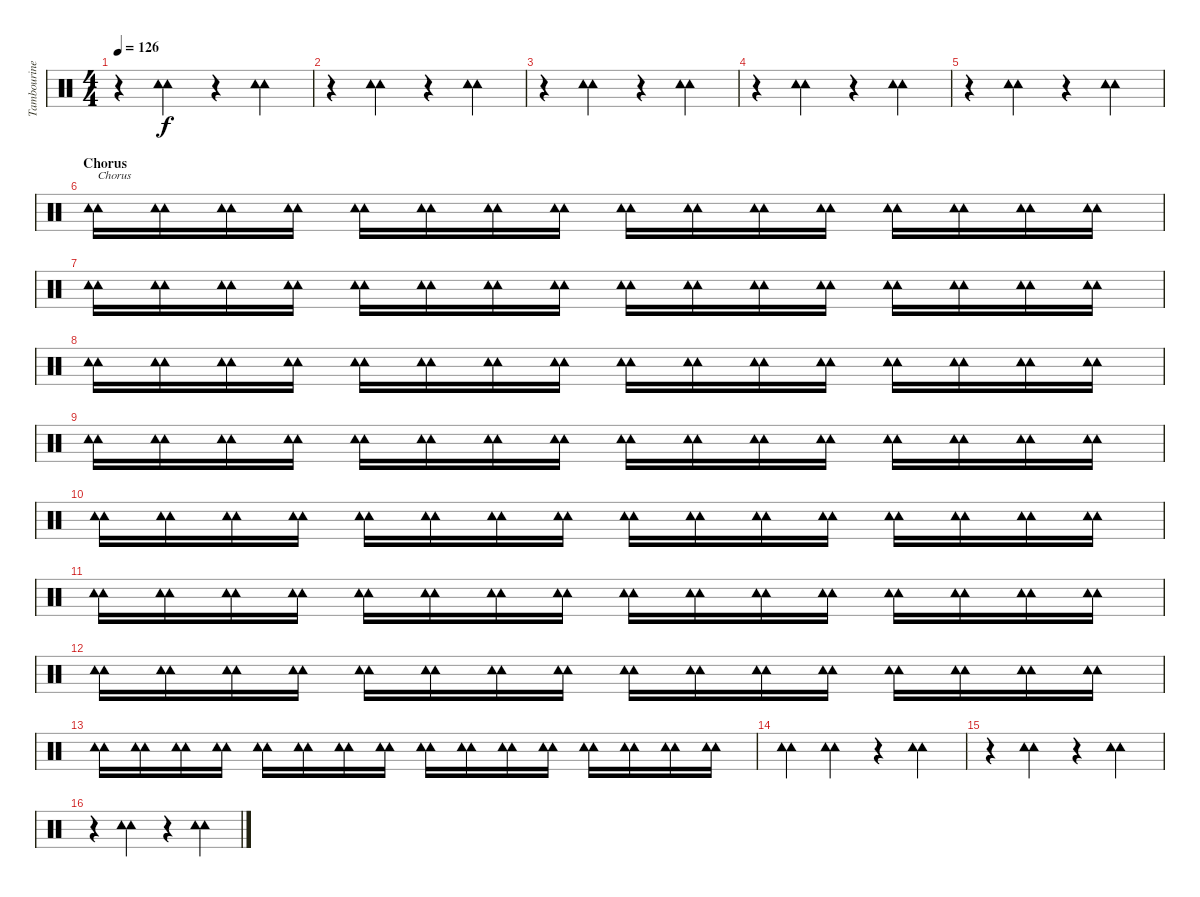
\track ("Tambourine" "Tambourine") {instrument percussion}
\staff {score}
\articulation defaults
\ts (4 4)
\tempo 126
\clef neutral
\ks c
r.4{dy f} ("Tambourine (hit)" "Tambourine (hit)").4 r.4 ("Tambourine (hit)" "Tambourine (hit)").4 |
r.4 ("Tambourine (hit)" "Tambourine (hit)").4 r.4 ("Tambourine (hit)" "Tambourine (hit)").4 |
r.4 ("Tambourine (hit)" "Tambourine (hit)").4 r.4 ("Tambourine (hit)" "Tambourine (hit)").4 |
r.4 ("Tambourine (hit)" "Tambourine (hit)").4 r.4 ("Tambourine (hit)" "Tambourine (hit)").4 |
r.4 ("Tambourine (hit)" "Tambourine (hit)").4 r.4 ("Tambourine (hit)" "Tambourine (hit)").4 |
\section ("" "Chorus")
("Tambourine (hit)" "Tambourine (hit)").16{txt "Chorus"} ("Tambourine (hit)" "Tambourine (hit)").16 ("Tambourine (hit)" "Tambourine (hit)").16 ("Tambourine (hit)" "Tambourine (hit)").16 ("Tambourine (hit)" "Tambourine (hit)").16 ("Tambourine (hit)" "Tambourine (hit)").16 ("Tambourine (hit)" "Tambourine (hit)").16 ("Tambourine (hit)" "Tambourine (hit)").16 ("Tambourine (hit)" "Tambourine (hit)").16 ("Tambourine (hit)" "Tambourine (hit)").16 ("Tambourine (hit)" "Tambourine (hit)").16 ("Tambourine (hit)" "Tambourine (hit)").16 ("Tambourine (hit)" "Tambourine (hit)").16 ("Tambourine (hit)" "Tambourine (hit)").16 ("Tambourine (hit)" "Tambourine (hit)").16 ("Tambourine (hit)" "Tambourine (hit)").16 |
("Tambourine (hit)" "Tambourine (hit)").16 ("Tambourine (hit)" "Tambourine (hit)").16 ("Tambourine (hit)" "Tambourine (hit)").16 ("Tambourine (hit)" "Tambourine (hit)").16 ("Tambourine (hit)" "Tambourine (hit)").16 ("Tambourine (hit)" "Tambourine (hit)").16 ("Tambourine (hit)" "Tambourine (hit)").16 ("Tambourine (hit)" "Tambourine (hit)").16 ("Tambourine (hit)" "Tambourine (hit)").16 ("Tambourine (hit)" "Tambourine (hit)").16 ("Tambourine (hit)" "Tambourine (hit)").16 ("Tambourine (hit)" "Tambourine (hit)").16 ("Tambourine (hit)" "Tambourine (hit)").16 ("Tambourine (hit)" "Tambourine (hit)").16 ("Tambourine (hit)" "Tambourine (hit)").16 ("Tambourine (hit)" "Tambourine (hit)").16 |
("Tambourine (hit)" "Tambourine (hit)").16 ("Tambourine (hit)" "Tambourine (hit)").16 ("Tambourine (hit)" "Tambourine (hit)").16 ("Tambourine (hit)" "Tambourine (hit)").16 ("Tambourine (hit)" "Tambourine (hit)").16 ("Tambourine (hit)" "Tambourine (hit)").16 ("Tambourine (hit)" "Tambourine (hit)").16 ("Tambourine (hit)" "Tambourine (hit)").16 ("Tambourine (hit)" "Tambourine (hit)").16 ("Tambourine (hit)" "Tambourine (hit)").16 ("Tambourine (hit)" "Tambourine (hit)").16 ("Tambourine (hit)" "Tambourine (hit)").16 ("Tambourine (hit)" "Tambourine (hit)").16 ("Tambourine (hit)" "Tambourine (hit)").16 ("Tambourine (hit)" "Tambourine (hit)").16 ("Tambourine (hit)" "Tambourine (hit)").16 |
("Tambourine (hit)" "Tambourine (hit)").16 ("Tambourine (hit)" "Tambourine (hit)").16 ("Tambourine (hit)" "Tambourine (hit)").16 ("Tambourine (hit)" "Tambourine (hit)").16 ("Tambourine (hit)" "Tambourine (hit)").16 ("Tambourine (hit)" "Tambourine (hit)").16 ("Tambourine (hit)" "Tambourine (hit)").16 ("Tambourine (hit)" "Tambourine (hit)").16 ("Tambourine (hit)" "Tambourine (hit)").16 ("Tambourine (hit)" "Tambourine (hit)").16 ("Tambourine (hit)" "Tambourine (hit)").16 ("Tambourine (hit)" "Tambourine (hit)").16 ("Tambourine (hit)" "Tambourine (hit)").16 ("Tambourine (hit)" "Tambourine (hit)").16 ("Tambourine (hit)" "Tambourine (hit)").16 ("Tambourine (hit)" "Tambourine (hit)").16 |
("Tambourine (hit)" "Tambourine (hit)").16 ("Tambourine (hit)" "Tambourine (hit)").16 ("Tambourine (hit)" "Tambourine (hit)").16 ("Tambourine (hit)" "Tambourine (hit)").16 ("Tambourine (hit)" "Tambourine (hit)").16 ("Tambourine (hit)" "Tambourine (hit)").16 ("Tambourine (hit)" "Tambourine (hit)").16 ("Tambourine (hit)" "Tambourine (hit)").16 ("Tambourine (hit)" "Tambourine (hit)").16 ("Tambourine (hit)" "Tambourine (hit)").16 ("Tambourine (hit)" "Tambourine (hit)").16 ("Tambourine (hit)" "Tambourine (hit)").16 ("Tambourine (hit)" "Tambourine (hit)").16 ("Tambourine (hit)" "Tambourine (hit)").16 ("Tambourine (hit)" "Tambourine (hit)").16 ("Tambourine (hit)" "Tambourine (hit)").16 |
("Tambourine (hit)" "Tambourine (hit)").16 ("Tambourine (hit)" "Tambourine (hit)").16 ("Tambourine (hit)" "Tambourine (hit)").16 ("Tambourine (hit)" "Tambourine (hit)").16 ("Tambourine (hit)" "Tambourine (hit)").16 ("Tambourine (hit)" "Tambourine (hit)").16 ("Tambourine (hit)" "Tambourine (hit)").16 ("Tambourine (hit)" "Tambourine (hit)").16 ("Tambourine (hit)" "Tambourine (hit)").16 ("Tambourine (hit)" "Tambourine (hit)").16 ("Tambourine (hit)" "Tambourine (hit)").16 ("Tambourine (hit)" "Tambourine (hit)").16 ("Tambourine (hit)" "Tambourine (hit)").16 ("Tambourine (hit)" "Tambourine (hit)").16 ("Tambourine (hit)" "Tambourine (hit)").16 ("Tambourine (hit)" "Tambourine (hit)").16 |
("Tambourine (hit)" "Tambourine (hit)").16 ("Tambourine (hit)" "Tambourine (hit)").16 ("Tambourine (hit)" "Tambourine (hit)").16 ("Tambourine (hit)" "Tambourine (hit)").16 ("Tambourine (hit)" "Tambourine (hit)").16 ("Tambourine (hit)" "Tambourine (hit)").16 ("Tambourine (hit)" "Tambourine (hit)").16 ("Tambourine (hit)" "Tambourine (hit)").16 ("Tambourine (hit)" "Tambourine (hit)").16 ("Tambourine (hit)" "Tambourine (hit)").16 ("Tambourine (hit)" "Tambourine (hit)").16 ("Tambourine (hit)" "Tambourine (hit)").16 ("Tambourine (hit)" "Tambourine (hit)").16 ("Tambourine (hit)" "Tambourine (hit)").16 ("Tambourine (hit)" "Tambourine (hit)").16 ("Tambourine (hit)" "Tambourine (hit)").16 |
("Tambourine (hit)" "Tambourine (hit)").16 ("Tambourine (hit)" "Tambourine (hit)").16 ("Tambourine (hit)" "Tambourine (hit)").16 ("Tambourine (hit)" "Tambourine (hit)").16 ("Tambourine (hit)" "Tambourine (hit)").16 ("Tambourine (hit)" "Tambourine (hit)").16 ("Tambourine (hit)" "Tambourine (hit)").16 ("Tambourine (hit)" "Tambourine (hit)").16 ("Tambourine (hit)" "Tambourine (hit)").16 ("Tambourine (hit)" "Tambourine (hit)").16 ("Tambourine (hit)" "Tambourine (hit)").16 ("Tambourine (hit)" "Tambourine (hit)").16 ("Tambourine (hit)" "Tambourine (hit)").16 ("Tambourine (hit)" "Tambourine (hit)").16 ("Tambourine (hit)" "Tambourine (hit)").16 ("Tambourine (hit)" "Tambourine (hit)").16 |
("Tambourine (hit)" "Tambourine (hit)").4 ("Tambourine (hit)" "Tambourine (hit)").4 r.4 ("Tambourine (hit)" "Tambourine (hit)").4 |
r.4 ("Tambourine (hit)" "Tambourine (hit)").4 r.4 ("Tambourine (hit)" "Tambourine (hit)").4 |
r.4 ("Tambourine (hit)" "Tambourine (hit)").4 r.4 ("Tambourine (hit)" "Tambourine (hit)").4
